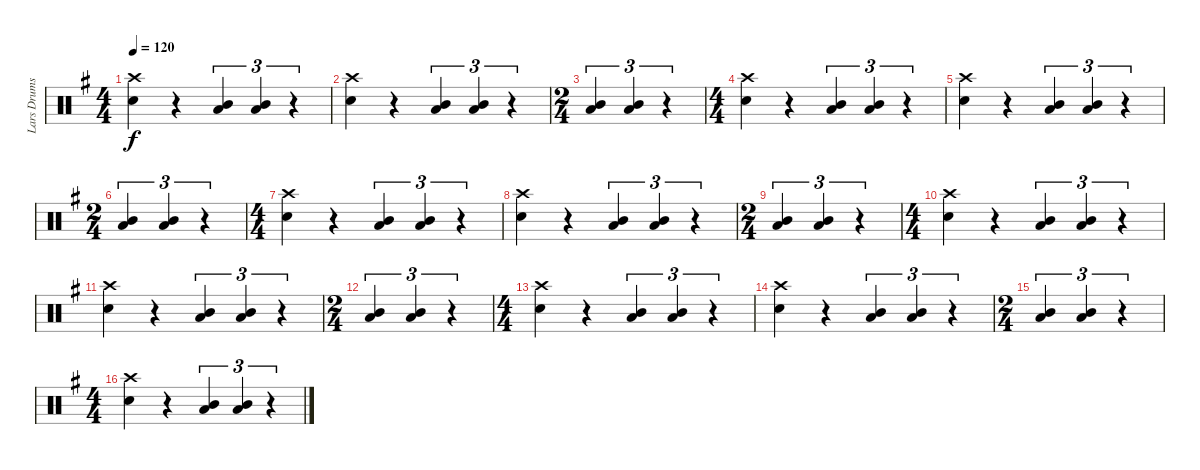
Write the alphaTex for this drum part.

\track ("Lars Drums" "Lars Drums") {instrument percussion}
\staff {score}
\articulation defaults
\ts (4 4)
\tempo 120
\clef neutral
\ks g
("Crash high (hit)" "Snare (hit) 2").4{dy f} r.4 ("Mid Tom (hit)" "Low Tom (hit)").4{tu (3 2)} ("Mid Tom (hit)" "Low Tom (hit)").4{tu (3 2)} r.4{tu (3 2)} |
("Crash high (hit)" "Snare (hit) 2").4 r.4 ("Mid Tom (hit)" "Low Tom (hit)").4{tu (3 2)} ("Mid Tom (hit)" "Low Tom (hit)").4{tu (3 2)} r.4{tu (3 2)} |
\ts (2 4)
("Mid Tom (hit)" "Low Tom (hit)").4{tu (3 2)} ("Mid Tom (hit)" "Low Tom (hit)").4{tu (3 2)} r.4{tu (3 2)} |
\ts (4 4)
("Crash high (hit)" "Snare (hit) 2").4 r.4 ("Mid Tom (hit)" "Low Tom (hit)").4{tu (3 2)} ("Mid Tom (hit)" "Low Tom (hit)").4{tu (3 2)} r.4{tu (3 2)} |
("Crash high (hit)" "Snare (hit) 2").4 r.4 ("Mid Tom (hit)" "Low Tom (hit)").4{tu (3 2)} ("Mid Tom (hit)" "Low Tom (hit)").4{tu (3 2)} r.4{tu (3 2)} |
\ts (2 4)
("Mid Tom (hit)" "Low Tom (hit)").4{tu (3 2)} ("Mid Tom (hit)" "Low Tom (hit)").4{tu (3 2)} r.4{tu (3 2)} |
\ts (4 4)
("Crash high (hit)" "Snare (hit) 2").4 r.4 ("Mid Tom (hit)" "Low Tom (hit)").4{tu (3 2)} ("Mid Tom (hit)" "Low Tom (hit)").4{tu (3 2)} r.4{tu (3 2)} |
("Crash high (hit)" "Snare (hit) 2").4 r.4 ("Mid Tom (hit)" "Low Tom (hit)").4{tu (3 2)} ("Mid Tom (hit)" "Low Tom (hit)").4{tu (3 2)} r.4{tu (3 2)} |
\ts (2 4)
("Mid Tom (hit)" "Low Tom (hit)").4{tu (3 2)} ("Mid Tom (hit)" "Low Tom (hit)").4{tu (3 2)} r.4{tu (3 2)} |
\ts (4 4)
("Crash high (hit)" "Snare (hit) 2").4 r.4 ("Mid Tom (hit)" "Low Tom (hit)").4{tu (3 2)} ("Mid Tom (hit)" "Low Tom (hit)").4{tu (3 2)} r.4{tu (3 2)} |
("Crash high (hit)" "Snare (hit) 2").4 r.4 ("Mid Tom (hit)" "Low Tom (hit)").4{tu (3 2)} ("Mid Tom (hit)" "Low Tom (hit)").4{tu (3 2)} r.4{tu (3 2)} |
\ts (2 4)
("Mid Tom (hit)" "Low Tom (hit)").4{tu (3 2)} ("Mid Tom (hit)" "Low Tom (hit)").4{tu (3 2)} r.4{tu (3 2)} |
\ts (4 4)
("Crash high (hit)" "Snare (hit) 2").4 r.4 ("Mid Tom (hit)" "Low Tom (hit)").4{tu (3 2)} ("Mid Tom (hit)" "Low Tom (hit)").4{tu (3 2)} r.4{tu (3 2)} |
("Crash high (hit)" "Snare (hit) 2").4 r.4 ("Mid Tom (hit)" "Low Tom (hit)").4{tu (3 2)} ("Mid Tom (hit)" "Low Tom (hit)").4{tu (3 2)} r.4{tu (3 2)} |
\ts (2 4)
("Mid Tom (hit)" "Low Tom (hit)").4{tu (3 2)} ("Mid Tom (hit)" "Low Tom (hit)").4{tu (3 2)} r.4{tu (3 2)} |
\ts (4 4)
("Crash high (hit)" "Snare (hit) 2").4 r.4 ("Mid Tom (hit)" "Low Tom (hit)").4{tu (3 2)} ("Mid Tom (hit)" "Low Tom (hit)").4{tu (3 2)} r.4{tu (3 2)}
